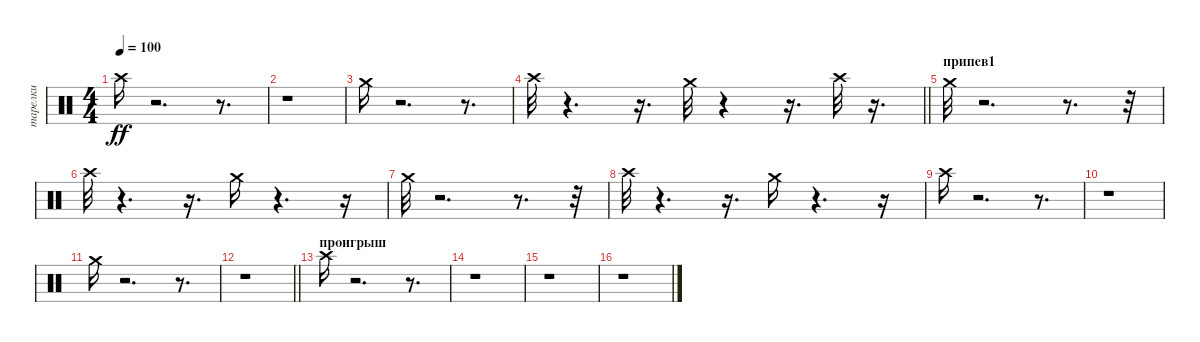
\track ("тарелки" "тарелки") {instrument percussion}
\staff {score}
\articulation defaults
\ts (4 4)
\tempo 100
\clef neutral
\ks c "Crash high (hit)".16{dy ff}
r.2{d} r.8{d} |
r.1 |
"Crash medium (hit)".16 r.2{d} r.8{d} |
\barLineRight lightlight "Crash high (hit)".32
r.4{d} r.16{d} "Crash medium (hit)".32 r.4 r.16{d} "Crash high (hit)".32 r.16{d} |
\section ("" "припев1")
"Crash medium (hit)".32 r.2{d} r.8{d} r.32 |
"Crash high (hit)".32 r.4{d} r.16{d} "Crash medium (hit)".16 r.4{d} r.16 |
"Crash medium (hit)".32 r.2{d} r.8{d} r.32 |
"Crash high (hit)".32 r.4{d} r.16{d} "Crash medium (hit)".16 r.4{d} r.16 |
"Crash high (hit)".16 r.2{d} r.8{d} |
r.1 |
"Crash medium (hit)".16 r.2{d} r.8{d} |
\barLineRight lightlight
r.1 |
\section ("" "проигрыш")
"Crash high (hit)".16 r.2{d} r.8{d} |
r.1 |
r.1 |
r.1
